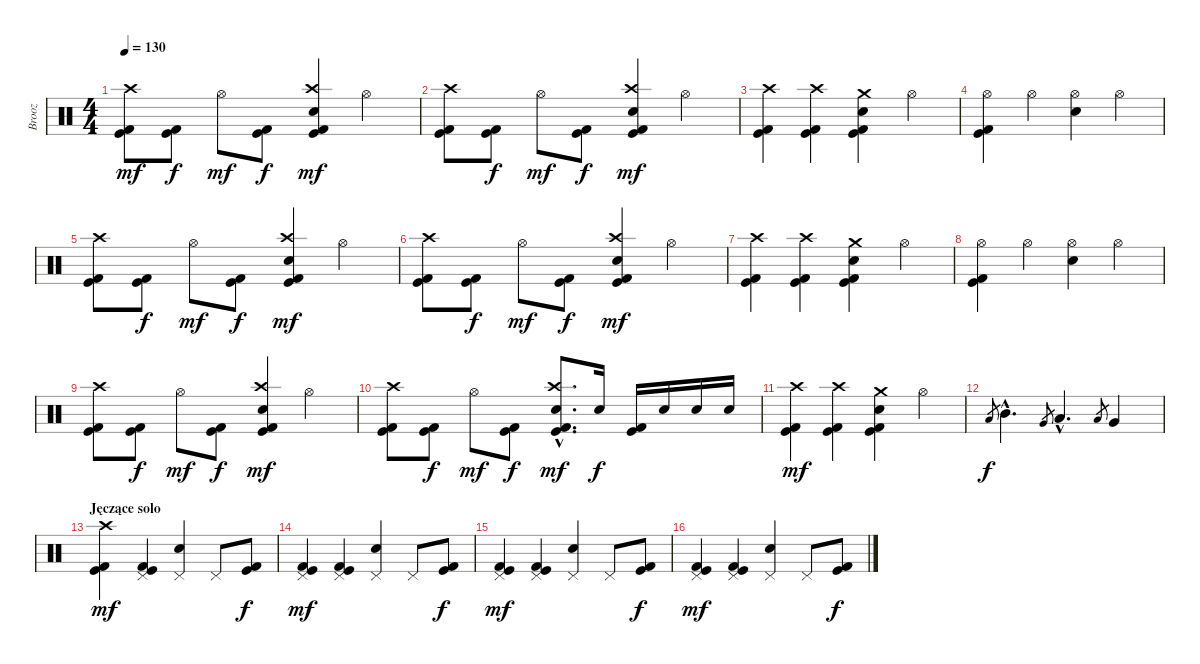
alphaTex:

\track ("Brooz" "Brooz") {instrument percussion}
\staff {score}
\articulation defaults
\ts (4 4)
\tempo 130
\clef neutral
\ks c
("Kick (hit) 2" "Kick (hit)" "Crash high (hit)").8{dy mf} ("Kick (hit) 2" "Kick (hit)").8{dy f} "Hi-Hat (open)".8{dy mf} ("Kick (hit) 2" "Kick (hit)").8{dy f} ("Kick (hit) 2" "Kick (hit)" "Crash high (hit)" "Snare (hit) 2").4{dy mf} "Hi-Hat (open)".4 |
("Kick (hit) 2" "Kick (hit)" "Crash high (hit)").8 ("Kick (hit) 2" "Kick (hit)").8{dy f} "Hi-Hat (open)".8{dy mf} ("Kick (hit) 2" "Kick (hit)").8{dy f} ("Kick (hit) 2" "Kick (hit)" "Crash high (hit)" "Snare (hit) 2").4{dy mf} "Hi-Hat (open)".4 |
("Kick (hit) 2" "Kick (hit)" "Crash high (hit)").4 ("Kick (hit) 2" "Kick (hit)" "Crash high (hit)").4 ("Kick (hit) 2" "Kick (hit)" "Crash medium (hit)" "Snare (hit) 2").4 "Hi-Hat (open)".4 |
("Hi-Hat (open)" "Kick (hit) 2" "Kick (hit)").4 "Hi-Hat (open)".4 ("Hi-Hat (open)" "Snare (hit) 2").4 "Hi-Hat (open)".4 |
("Kick (hit) 2" "Kick (hit)" "Crash high (hit)").8 ("Kick (hit) 2" "Kick (hit)").8{dy f} "Hi-Hat (open)".8{dy mf} ("Kick (hit) 2" "Kick (hit)").8{dy f} ("Kick (hit) 2" "Kick (hit)" "Crash high (hit)" "Snare (hit) 2").4{dy mf} "Hi-Hat (open)".4 |
("Kick (hit) 2" "Kick (hit)" "Crash high (hit)").8 ("Kick (hit) 2" "Kick (hit)").8{dy f} "Hi-Hat (open)".8{dy mf} ("Kick (hit) 2" "Kick (hit)").8{dy f} ("Kick (hit) 2" "Kick (hit)" "Crash high (hit)" "Snare (hit) 2").4{dy mf} "Hi-Hat (open)".4 |
("Kick (hit) 2" "Kick (hit)" "Crash high (hit)").4 ("Kick (hit) 2" "Kick (hit)" "Crash high (hit)").4 ("Kick (hit) 2" "Kick (hit)" "Crash medium (hit)" "Snare (hit) 2").4 "Hi-Hat (open)".4 |
("Hi-Hat (open)" "Kick (hit) 2" "Kick (hit)").4 "Hi-Hat (open)".4 ("Hi-Hat (open)" "Snare (hit) 2").4 "Hi-Hat (open)".4 |
("Kick (hit) 2" "Kick (hit)" "Crash high (hit)").8 ("Kick (hit) 2" "Kick (hit)").8{dy f} "Hi-Hat (open)".8{dy mf} ("Kick (hit) 2" "Kick (hit)").8{dy f} ("Kick (hit) 2" "Kick (hit)" "Crash high (hit)" "Snare (hit) 2").4{dy mf} "Hi-Hat (open)".4 |
("Kick (hit) 2" "Kick (hit)" "Crash high (hit)").8 ("Kick (hit) 2" "Kick (hit)").8{dy f} "Hi-Hat (open)".8{dy mf} ("Kick (hit) 2" "Kick (hit)").8{dy f} ("Kick (hit) 2"{hac} "Kick (hit)"{hac} "Crash high (hit)"{hac} "Snare (hit) 2"{hac}).8{d dy mf} "Snare (hit) 2".16{dy f} ("Kick (hit) 2" "Kick (hit)").16 "Snare (hit) 2".16 "Snare (hit) 2".16 "Snare (hit) 2".16 |
("Kick (hit) 2" "Kick (hit)" "Crash high (hit)").4{dy mf} ("Kick (hit) 2" "Kick (hit)" "Crash high (hit)").4 ("Kick (hit) 2" "Kick (hit)" "Crash medium (hit)" "Snare (hit) 2").4 "Hi-Hat (open)".4 |
"Low Tom (hit)".8{gr dy f} "Mid Tom (hit)"{hac}.4{d} "Very Low Tom (hit)".8{gr} "Low Tom (hit)"{hac}.4{d} "Low Floor Tom (hit)".8{gr} "Very Low Tom (hit)".4 |
\section ("" "Jęczące solo")
("Kick (hit) 2" "Kick (hit)" "Crash high (hit)").4{dy mf} ("Pedal Hi-Hat (hit)" "Kick (hit) 2" "Kick (hit)").4 ("Pedal Hi-Hat (hit)" "Snare (hit) 2").4 "Pedal Hi-Hat (hit)".8 ("Kick (hit) 2" "Kick (hit)").8{dy f} |
("Kick (hit) 2" "Kick (hit)" "Pedal Hi-Hat (hit)").4{dy mf} ("Pedal Hi-Hat (hit)" "Kick (hit) 2" "Kick (hit)").4 ("Snare (hit) 2" "Pedal Hi-Hat (hit)").4 "Pedal Hi-Hat (hit)".8 ("Kick (hit) 2" "Kick (hit)").8{dy f} |
("Kick (hit) 2" "Kick (hit)" "Pedal Hi-Hat (hit)").4{dy mf} ("Pedal Hi-Hat (hit)" "Kick (hit) 2" "Kick (hit)").4 ("Pedal Hi-Hat (hit)" "Snare (hit) 2").4 "Pedal Hi-Hat (hit)".8 ("Kick (hit) 2" "Kick (hit)").8{dy f} |
("Kick (hit) 2" "Kick (hit)" "Pedal Hi-Hat (hit)").4{dy mf} ("Pedal Hi-Hat (hit)" "Kick (hit) 2" "Kick (hit)").4 ("Snare (hit) 2" "Pedal Hi-Hat (hit)").4 "Pedal Hi-Hat (hit)".8 ("Kick (hit) 2" "Kick (hit)").8{dy f}
